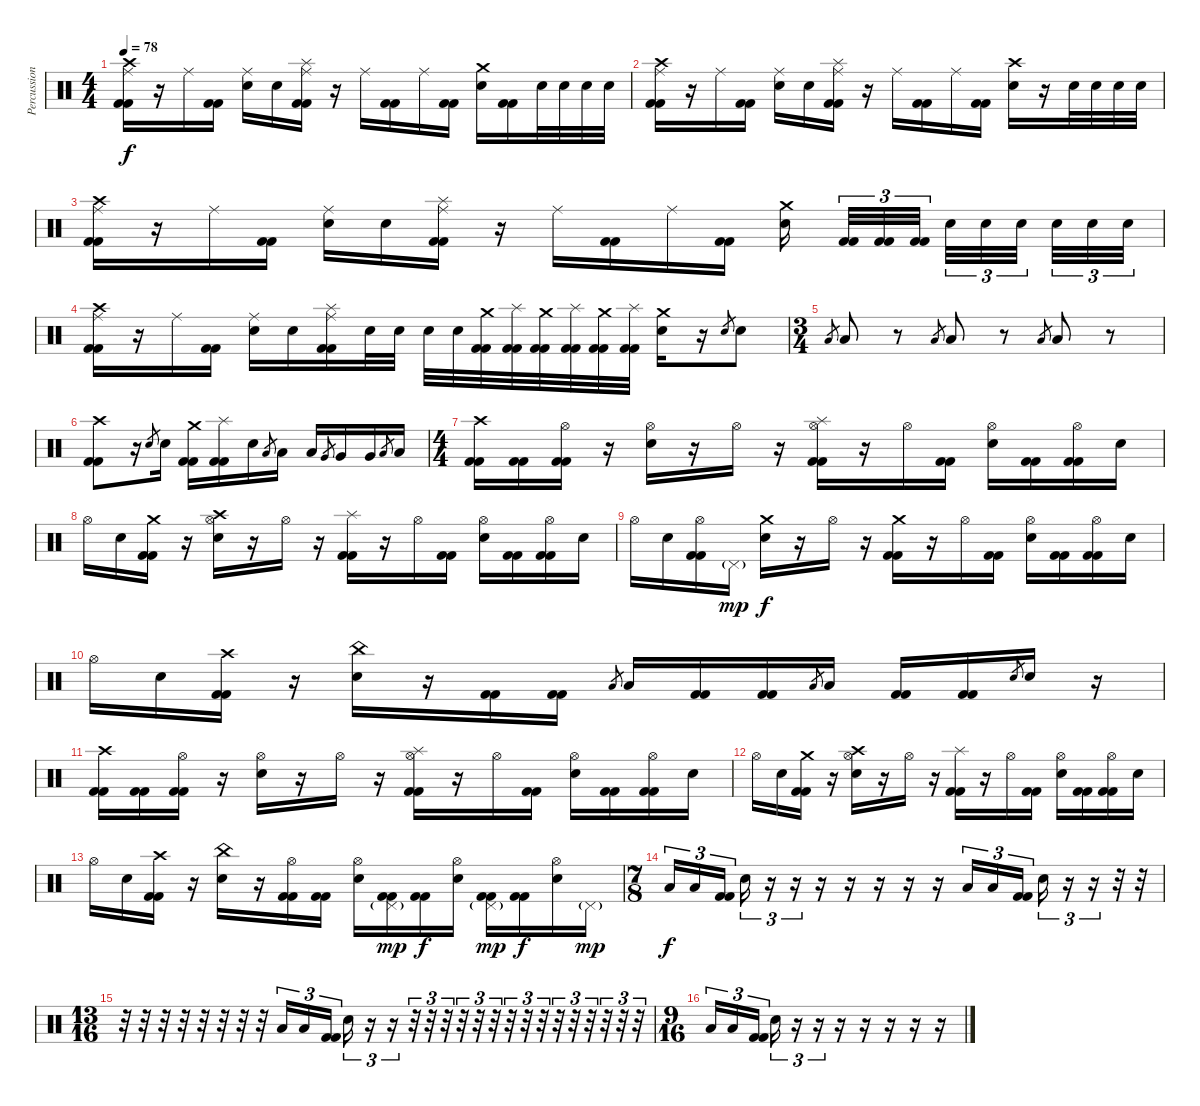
\track ("Percussion" "Percussion") {instrument percussion}
\staff {score}
\articulation defaults
\ts (4 4)
\tempo 78
\clef neutral
\ks c
("Crash high (hit)" "Ride (middle)" "Kick (hit) 2" "Kick (hit) 2").16{dy f} r.16 "Ride (middle)".16 ("Kick (hit) 2" "Kick (hit) 2").16 ("Ride (middle)" "Electric Snare (hit)").16 "Electric Snare (hit)".16 ("Splash (hit)" "Ride (middle)" "Kick (hit) 2" "Kick (hit) 2").16 r.16 "Ride (middle)".16 ("Kick (hit) 2" "Kick (hit) 2").16 "Ride (middle)".16 ("Kick (hit) 2" "Kick (hit) 2").16 ("Crash medium (hit)" "Electric Snare (hit)").16 ("Kick (hit) 2" "Kick (hit) 2").16 "Electric Snare (hit)".32 "Electric Snare (hit)".32 "Electric Snare (hit)".32 "Electric Snare (hit)".32 |
("Crash high (hit)" "Ride (middle)" "Kick (hit) 2" "Kick (hit) 2").16 r.16 "Ride (middle)".16 ("Kick (hit) 2" "Kick (hit) 2").16 ("Ride (middle)" "Electric Snare (hit)").16 "Electric Snare (hit)".16 ("Splash (hit)" "Ride (middle)" "Kick (hit) 2" "Kick (hit) 2").16 r.16 "Ride (middle)".16 ("Kick (hit) 2" "Kick (hit) 2").16 "Ride (middle)".16 ("Kick (hit) 2" "Kick (hit) 2").16 ("Crash high (hit)" "Electric Snare (hit)").16 r.16 "Electric Snare (hit)".32 "Electric Snare (hit)".32 "Electric Snare (hit)".32 "Electric Snare (hit)".32 |
("Crash high (hit)" "Ride (middle)" "Kick (hit) 2" "Kick (hit) 2").16 r.16 "Ride (middle)".16 ("Kick (hit) 2" "Kick (hit) 2").16 ("Ride (middle)" "Electric Snare (hit)").16 "Electric Snare (hit)".16 ("Splash (hit)" "Ride (middle)" "Kick (hit) 2" "Kick (hit) 2").16 r.16 "Ride (middle)".16 ("Kick (hit) 2" "Kick (hit) 2").16 "Ride (middle)".16 ("Kick (hit) 2" "Kick (hit) 2").16 ("Crash medium (hit)" "Electric Snare (hit)").16{beam splitsecondary} ("Kick (hit) 2" "Kick (hit) 2").32{tu (3 2)} ("Kick (hit) 2" "Kick (hit) 2").32{tu (3 2)} ("Kick (hit) 2" "Kick (hit) 2").32{tu (3 2) beam splitsecondary} "Electric Snare (hit)".32{tu (3 2)} "Electric Snare (hit)".32{tu (3 2)} "Electric Snare (hit)".32{tu (3 2) beam splitsecondary} "Electric Snare (hit)".32{tu (3 2)} "Electric Snare (hit)".32{tu (3 2)} "Electric Snare (hit)".32{tu (3 2)} |
("Crash high (hit)" "Ride (middle)" "Kick (hit) 2" "Kick (hit) 2").16 r.16 "Ride (middle)".16 ("Kick (hit) 2" "Kick (hit) 2").16 ("Ride (middle)" "Electric Snare (hit)").16 "Electric Snare (hit)".16 ("Splash (hit)" "Ride (middle)" "Kick (hit) 2" "Kick (hit) 2").16 "Electric Snare (hit)".32 "Electric Snare (hit)".32 "Electric Snare (hit)".32 "Electric Snare (hit)".32 ("Crash medium (hit)" "Kick (hit) 2" "Kick (hit) 2").32 ("Splash (hit)" "Kick (hit) 2" "Kick (hit) 2").32 ("Crash medium (hit)" "Kick (hit) 2" "Kick (hit) 2").32 ("Splash (hit)" "Kick (hit) 2" "Kick (hit) 2").32 ("Crash medium (hit)" "Kick (hit) 2" "Kick (hit) 2").32 ("Splash (hit)" "Kick (hit) 2" "Kick (hit) 2").32 ("Crash medium (hit)" "Electric Snare (hit)").16 r.16 "Electric Snare (hit)".8{gr} "Electric Snare (hit)".8 |
\ts (3 4)
"Low Floor Tom (hit)".8{gr} "Low Floor Tom (hit)".8 r.8 "Low Floor Tom (hit)".8{gr} "Low Floor Tom (hit)".8 r.8 "Low Floor Tom (hit)".8{gr} "Low Floor Tom (hit)".8 r.8 |
("Crash high (hit)" "Kick (hit) 2" "Kick (hit) 2").8 r.16 "Electric Snare (hit)".8{gr} "Electric Snare (hit)".16 ("Crash medium (hit)" "Kick (hit) 2" "Kick (hit) 2").16 ("Splash (hit)" "Kick (hit) 2" "Kick (hit) 2").16 "Electric Snare (hit)".16 "Low Tom (hit)".8{gr} "Low Tom (hit)".16 "Low Tom (hit)".16 "Very Low Tom (hit)".8{gr} "Very Low Tom (hit)".16 "Very Low Tom (hit)".16 "Low Floor Tom (hit)".8{gr} "Low Floor Tom (hit)".16 |
\ts (4 4)
("Crash high (hit)" "Kick (hit) 2" "Kick (hit) 2").16 ("Kick (hit) 2" "Kick (hit) 2").16 ("Hi-Hat (open)" "Kick (hit) 2" "Kick (hit) 2").16 r.16 ("Hi-Hat (open)" "Electric Snare (hit)").16 r.16 "Hi-Hat (open)".16 r.16 ("Splash (hit)" "Hi-Hat (open)" "Kick (hit) 2" "Kick (hit) 2").16 r.16 "Hi-Hat (open)".16 ("Kick (hit) 2" "Kick (hit) 2").16 ("Hi-Hat (open)" "Electric Snare (hit)").16 ("Kick (hit) 2" "Kick (hit) 2").16 ("Hi-Hat (open)" "Kick (hit) 2" "Kick (hit) 2").16 "Electric Snare (hit)".16 |
"Hi-Hat (open)".16 "Electric Snare (hit)".16 ("Crash medium (hit)" "Kick (hit) 2" "Kick (hit) 2").16 r.16 ("Crash high (hit)" "Hi-Hat (open)" "Electric Snare (hit)").16 r.16 "Hi-Hat (open)".16 r.16 ("Splash (hit)" "Kick (hit) 2" "Kick (hit) 2").16 r.16 "Hi-Hat (open)".16 ("Kick (hit) 2" "Kick (hit) 2").16 ("Hi-Hat (open)" "Electric Snare (hit)").16 ("Kick (hit) 2" "Kick (hit) 2").16 ("Hi-Hat (open)" "Kick (hit) 2" "Kick (hit) 2").16 "Electric Snare (hit)".16 |
"Hi-Hat (open)".16 "Electric Snare (hit)".16 ("Hi-Hat (open)" "Kick (hit) 2" "Kick (hit) 2").16 "Pedal Hi-Hat (hit)"{g}.16{dy mp} ("Crash medium (hit)" "Electric Snare (hit)").16{dy f} r.16 "Hi-Hat (open)".16 r.16 ("Crash medium (hit)" "Kick (hit) 2" "Kick (hit) 2").16 r.16 "Hi-Hat (open)".16 ("Kick (hit) 2" "Kick (hit) 2").16 ("Hi-Hat (open)" "Electric Snare (hit)").16 ("Kick (hit) 2" "Kick (hit) 2").16 ("Hi-Hat (open)" "Kick (hit) 2" "Kick (hit) 2").16 "Electric Snare (hit)".16 |
"Hi-Hat (open)".16 "Electric Snare (hit)".16 ("Crash high (hit)" "Kick (hit) 2" "Kick (hit) 2").16 r.16 ("China (hit)" "Electric Snare (hit)").16 r.16 ("Kick (hit) 2" "Kick (hit) 2").16 ("Kick (hit) 2" "Kick (hit) 2").16 "Low Floor Tom (hit)".8{gr} "Low Floor Tom (hit)".16 ("Kick (hit) 2" "Kick (hit) 2").16 ("Kick (hit) 2" "Kick (hit) 2").16 "Low Tom (hit)".8{gr} "Low Tom (hit)".16 ("Kick (hit) 2" "Kick (hit) 2").16 ("Kick (hit) 2" "Kick (hit) 2").16 "Electric Snare (hit)".8{gr} "Electric Snare (hit)".16 r.16 |
("Crash high (hit)" "Kick (hit) 2" "Kick (hit) 2").16 ("Kick (hit) 2" "Kick (hit) 2").16 ("Hi-Hat (open)" "Kick (hit) 2" "Kick (hit) 2").16 r.16 ("Hi-Hat (open)" "Electric Snare (hit)").16 r.16 "Hi-Hat (open)".16 r.16 ("Splash (hit)" "Hi-Hat (open)" "Kick (hit) 2" "Kick (hit) 2").16 r.16 "Hi-Hat (open)".16 ("Kick (hit) 2" "Kick (hit) 2").16 ("Hi-Hat (open)" "Electric Snare (hit)").16 ("Kick (hit) 2" "Kick (hit) 2").16 ("Hi-Hat (open)" "Kick (hit) 2" "Kick (hit) 2").16 "Electric Snare (hit)".16 |
"Hi-Hat (open)".16 "Electric Snare (hit)".16 ("Crash medium (hit)" "Kick (hit) 2" "Kick (hit) 2").16 r.16 ("Crash high (hit)" "Hi-Hat (open)" "Electric Snare (hit)").16 r.16 "Hi-Hat (open)".16 r.16 ("Splash (hit)" "Kick (hit) 2" "Kick (hit) 2").16 r.16 "Hi-Hat (open)".16 ("Kick (hit) 2" "Kick (hit) 2").16 ("Hi-Hat (open)" "Electric Snare (hit)").16 ("Kick (hit) 2" "Kick (hit) 2").16 ("Hi-Hat (open)" "Kick (hit) 2" "Kick (hit) 2").16 "Electric Snare (hit)".16 |
"Hi-Hat (open)".16 "Electric Snare (hit)".16 ("Crash high (hit)" "Kick (hit) 2" "Kick (hit) 2").16 r.16 ("China (hit)" "Electric Snare (hit)").16 r.16 ("Hi-Hat (open)" "Kick (hit) 2" "Kick (hit) 2").16 ("Kick (hit) 2" "Kick (hit) 2").16 ("Hi-Hat (open)" "Electric Snare (hit)").16 ("Pedal Hi-Hat (hit)"{g} "Kick (hit) 2" "Kick (hit) 2").16{dy mp} ("Kick (hit) 2" "Kick (hit) 2").16{dy f} ("Hi-Hat (open)" "Electric Snare (hit)").16 ("Pedal Hi-Hat (hit)"{g} "Kick (hit) 2" "Kick (hit) 2").16{dy mp} ("Kick (hit) 2" "Kick (hit) 2").16{dy f} ("Hi-Hat (open)" "Electric Snare (hit)").16 "Pedal Hi-Hat (hit)"{g}.16{dy mp} |
\ts (7 8)
"Low Floor Tom (hit)".16{tu (3 2) dy f} "Low Tom (hit)".16{tu (3 2)} ("Kick (hit) 2" "Kick (hit) 2").16{tu (3 2)} "Electric Snare (hit)".16{tu (3 2)} r.16{tu (3 2)} r.16{tu (3 2)} r.16 r.16 r.16 r.16 r.16 "Low Floor Tom (hit)".16{tu (3 2)} "Low Tom (hit)".16{tu (3 2)} ("Kick (hit) 2" "Kick (hit) 2").16{tu (3 2)} "Electric Snare (hit)".16{tu (3 2)} r.16{tu (3 2)} r.16{tu (3 2)} r.32 r.32 |
\ts (13 16)
r.32 r.32 r.32 r.32 r.32 r.32 r.32 r.32 "Low Floor Tom (hit)".16{tu (3 2)} "Low Tom (hit)".16{tu (3 2)} ("Kick (hit) 2" "Kick (hit) 2").16{tu (3 2)} "Electric Snare (hit)".16{tu (3 2)} r.16{tu (3 2)} r.16{tu (3 2)} r.32{tu (3 2)} r.32{tu (3 2)} r.32{tu (3 2)} r.32{tu (3 2)} r.32{tu (3 2)} r.32{tu (3 2)} r.32{tu (3 2)} r.32{tu (3 2)} r.32{tu (3 2)} r.32{tu (3 2)} r.32{tu (3 2)} r.32{tu (3 2)} r.32{tu (3 2)} r.32{tu (3 2)} r.32{tu (3 2)} |
\ts (9 16)
"Low Floor Tom (hit)".16{tu (3 2)} "Low Tom (hit)".16{tu (3 2)} ("Kick (hit) 2" "Kick (hit) 2").16{tu (3 2) beam splitsecondary} "Electric Snare (hit)".16{tu (3 2)} r.16{tu (3 2)} r.16{tu (3 2)} r.16 r.16 r.16 r.16 r.16
